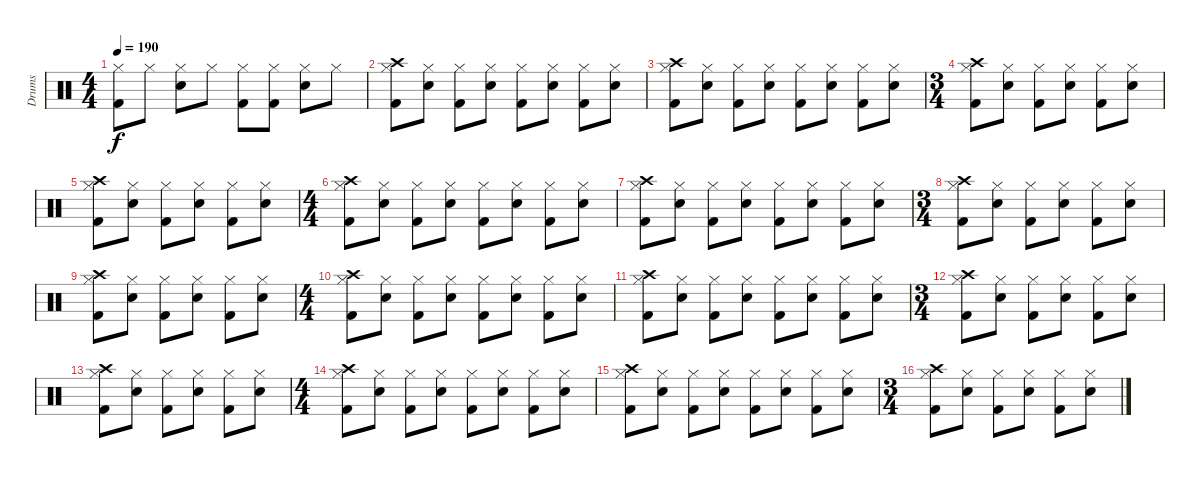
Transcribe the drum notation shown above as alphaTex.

\track ("Drums" "Drums") {instrument percussion}
\staff {score}
\articulation defaults
\ts (4 4)
\tempo 190
\clef neutral
\ks c
("Kick (hit) 2" "Hi-Hat (closed)").8{dy f} "Hi-Hat (closed)".8 ("Snare (hit) 2" "Hi-Hat (closed)").8 "Hi-Hat (closed)".8 ("Kick (hit) 2" "Hi-Hat (closed)").8 ("Kick (hit) 2" "Hi-Hat (closed)").8 ("Snare (hit) 2" "Hi-Hat (closed)").8 "Hi-Hat (closed)".8 |
("Kick (hit) 2" "Hi-Hat (closed)" "Crash high (hit)").8 ("Snare (hit) 2" "Hi-Hat (closed)").8 ("Kick (hit) 2" "Hi-Hat (closed)").8 ("Snare (hit) 2" "Hi-Hat (closed)").8 ("Kick (hit) 2" "Hi-Hat (closed)").8 ("Snare (hit) 2" "Hi-Hat (closed)").8 ("Kick (hit) 2" "Hi-Hat (closed)").8 ("Snare (hit) 2" "Hi-Hat (closed)").8 |
("Kick (hit) 2" "Hi-Hat (closed)" "Crash high (hit)").8 ("Snare (hit) 2" "Hi-Hat (closed)").8 ("Kick (hit) 2" "Hi-Hat (closed)").8 ("Snare (hit) 2" "Hi-Hat (closed)").8 ("Kick (hit) 2" "Hi-Hat (closed)").8 ("Snare (hit) 2" "Hi-Hat (closed)").8 ("Kick (hit) 2" "Hi-Hat (closed)").8 ("Snare (hit) 2" "Hi-Hat (closed)").8 |
\ts (3 4)
("Kick (hit) 2" "Hi-Hat (closed)" "Crash high (hit)").8 ("Snare (hit) 2" "Hi-Hat (closed)").8 ("Kick (hit) 2" "Hi-Hat (closed)").8 ("Snare (hit) 2" "Hi-Hat (closed)").8 ("Kick (hit) 2" "Hi-Hat (closed)").8 ("Snare (hit) 2" "Hi-Hat (closed)").8 |
("Kick (hit) 2" "Hi-Hat (closed)" "Crash high (hit)").8 ("Snare (hit) 2" "Hi-Hat (closed)").8 ("Kick (hit) 2" "Hi-Hat (closed)").8 ("Snare (hit) 2" "Hi-Hat (closed)").8 ("Kick (hit) 2" "Hi-Hat (closed)").8 ("Snare (hit) 2" "Hi-Hat (closed)").8 |
\ts (4 4)
("Kick (hit) 2" "Hi-Hat (closed)" "Crash high (hit)").8 ("Snare (hit) 2" "Hi-Hat (closed)").8 ("Kick (hit) 2" "Hi-Hat (closed)").8 ("Snare (hit) 2" "Hi-Hat (closed)").8 ("Kick (hit) 2" "Hi-Hat (closed)").8 ("Snare (hit) 2" "Hi-Hat (closed)").8 ("Kick (hit) 2" "Hi-Hat (closed)").8 ("Snare (hit) 2" "Hi-Hat (closed)").8 |
("Kick (hit) 2" "Hi-Hat (closed)" "Crash high (hit)").8 ("Snare (hit) 2" "Hi-Hat (closed)").8 ("Kick (hit) 2" "Hi-Hat (closed)").8 ("Snare (hit) 2" "Hi-Hat (closed)").8 ("Kick (hit) 2" "Hi-Hat (closed)").8 ("Snare (hit) 2" "Hi-Hat (closed)").8 ("Kick (hit) 2" "Hi-Hat (closed)").8 ("Snare (hit) 2" "Hi-Hat (closed)").8 |
\ts (3 4)
("Kick (hit) 2" "Hi-Hat (closed)" "Crash high (hit)").8 ("Snare (hit) 2" "Hi-Hat (closed)").8 ("Kick (hit) 2" "Hi-Hat (closed)").8 ("Snare (hit) 2" "Hi-Hat (closed)").8 ("Kick (hit) 2" "Hi-Hat (closed)").8 ("Snare (hit) 2" "Hi-Hat (closed)").8 |
("Kick (hit) 2" "Hi-Hat (closed)" "Crash high (hit)").8 ("Snare (hit) 2" "Hi-Hat (closed)").8 ("Kick (hit) 2" "Hi-Hat (closed)").8 ("Snare (hit) 2" "Hi-Hat (closed)").8 ("Kick (hit) 2" "Hi-Hat (closed)").8 ("Snare (hit) 2" "Hi-Hat (closed)").8 |
\ts (4 4)
("Kick (hit) 2" "Hi-Hat (closed)" "Crash high (hit)").8 ("Snare (hit) 2" "Hi-Hat (closed)").8 ("Kick (hit) 2" "Hi-Hat (closed)").8 ("Snare (hit) 2" "Hi-Hat (closed)").8 ("Kick (hit) 2" "Hi-Hat (closed)").8 ("Snare (hit) 2" "Hi-Hat (closed)").8 ("Kick (hit) 2" "Hi-Hat (closed)").8 ("Snare (hit) 2" "Hi-Hat (closed)").8 |
("Kick (hit) 2" "Hi-Hat (closed)" "Crash high (hit)").8 ("Snare (hit) 2" "Hi-Hat (closed)").8 ("Kick (hit) 2" "Hi-Hat (closed)").8 ("Snare (hit) 2" "Hi-Hat (closed)").8 ("Kick (hit) 2" "Hi-Hat (closed)").8 ("Snare (hit) 2" "Hi-Hat (closed)").8 ("Kick (hit) 2" "Hi-Hat (closed)").8 ("Snare (hit) 2" "Hi-Hat (closed)").8 |
\ts (3 4)
("Kick (hit) 2" "Hi-Hat (closed)" "Crash high (hit)").8 ("Snare (hit) 2" "Hi-Hat (closed)").8 ("Kick (hit) 2" "Hi-Hat (closed)").8 ("Snare (hit) 2" "Hi-Hat (closed)").8 ("Kick (hit) 2" "Hi-Hat (closed)").8 ("Snare (hit) 2" "Hi-Hat (closed)").8 |
("Kick (hit) 2" "Hi-Hat (closed)" "Crash high (hit)").8 ("Snare (hit) 2" "Hi-Hat (closed)").8 ("Kick (hit) 2" "Hi-Hat (closed)").8 ("Snare (hit) 2" "Hi-Hat (closed)").8 ("Kick (hit) 2" "Hi-Hat (closed)").8 ("Snare (hit) 2" "Hi-Hat (closed)").8 |
\ts (4 4)
("Kick (hit) 2" "Hi-Hat (closed)" "Crash high (hit)").8 ("Snare (hit) 2" "Hi-Hat (closed)").8 ("Kick (hit) 2" "Hi-Hat (closed)").8 ("Snare (hit) 2" "Hi-Hat (closed)").8 ("Kick (hit) 2" "Hi-Hat (closed)").8 ("Snare (hit) 2" "Hi-Hat (closed)").8 ("Kick (hit) 2" "Hi-Hat (closed)").8 ("Snare (hit) 2" "Hi-Hat (closed)").8 |
("Kick (hit) 2" "Hi-Hat (closed)" "Crash high (hit)").8 ("Snare (hit) 2" "Hi-Hat (closed)").8 ("Kick (hit) 2" "Hi-Hat (closed)").8 ("Snare (hit) 2" "Hi-Hat (closed)").8 ("Kick (hit) 2" "Hi-Hat (closed)").8 ("Snare (hit) 2" "Hi-Hat (closed)").8 ("Kick (hit) 2" "Hi-Hat (closed)").8 ("Snare (hit) 2" "Hi-Hat (closed)").8 |
\ts (3 4)
("Kick (hit) 2" "Hi-Hat (closed)" "Crash high (hit)").8 ("Snare (hit) 2" "Hi-Hat (closed)").8 ("Kick (hit) 2" "Hi-Hat (closed)").8 ("Snare (hit) 2" "Hi-Hat (closed)").8 ("Kick (hit) 2" "Hi-Hat (closed)").8 ("Snare (hit) 2" "Hi-Hat (closed)").8
